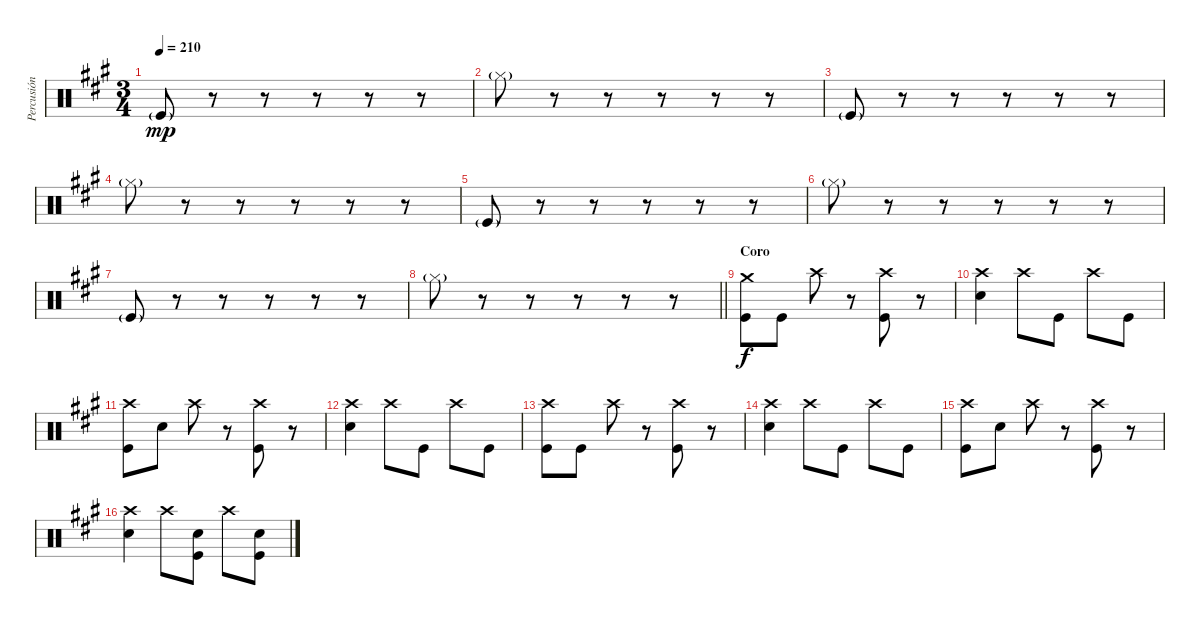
\track ("Percusión" "Percusión") {instrument percussion}
\staff {score}
\articulation defaults
\ts (3 4)
\tempo 210
\clef neutral
\ks a "Kick (hit)"{g}.8{dy mp}
r.8 r.8 r.8 r.8 r.8 |
"Hi-Hat (closed)"{g}.8 r.8 r.8 r.8 r.8 r.8 |
"Kick (hit)"{g}.8 r.8 r.8 r.8 r.8 r.8 |
"Hi-Hat (closed)"{g}.8 r.8 r.8 r.8 r.8 r.8 |
"Kick (hit)"{g}.8 r.8 r.8 r.8 r.8 r.8 |
"Hi-Hat (closed)"{g}.8 r.8 r.8 r.8 r.8 r.8 |
"Kick (hit)"{g}.8 r.8 r.8 r.8 r.8 r.8 |
\barLineRight lightlight "Hi-Hat (closed)"{g}.8
r.8 r.8 r.8 r.8 r.8 |
\section ("" "Coro")
("Crash medium (hit)" "Kick (hit)").8{dy f} "Kick (hit)".8 "Crash high (hit)".8 r.8 ("Crash high (hit)" "Kick (hit)").8 r.8 |
("Crash high (hit)" "Electric Snare (hit)").4 "Crash high (hit)".8 "Kick (hit)".8 "Crash high (hit)".8 "Kick (hit)".8 |
("Crash high (hit)" "Kick (hit)").8 "Electric Snare (hit)".8 "Crash high (hit)".8 r.8 ("Crash high (hit)" "Kick (hit)").8 r.8 |
("Crash high (hit)" "Electric Snare (hit)").4 "Crash high (hit)".8 "Kick (hit)".8 "Crash high (hit)".8 "Kick (hit)".8 |
("Crash high (hit)" "Kick (hit)").8 "Kick (hit)".8 "Crash high (hit)".8 r.8 ("Crash high (hit)" "Kick (hit)").8 r.8 |
("Crash high (hit)" "Electric Snare (hit)").4 "Crash high (hit)".8 "Kick (hit)".8 "Crash high (hit)".8 "Kick (hit)".8 |
("Crash high (hit)" "Kick (hit)").8 "Electric Snare (hit)".8 "Crash high (hit)".8 r.8 ("Crash high (hit)" "Kick (hit)").8 r.8 |
("Crash high (hit)" "Electric Snare (hit)").4 "Crash high (hit)".8 ("Electric Snare (hit)" "Kick (hit)").8 "Crash high (hit)".8 ("Electric Snare (hit)" "Kick (hit)").8
